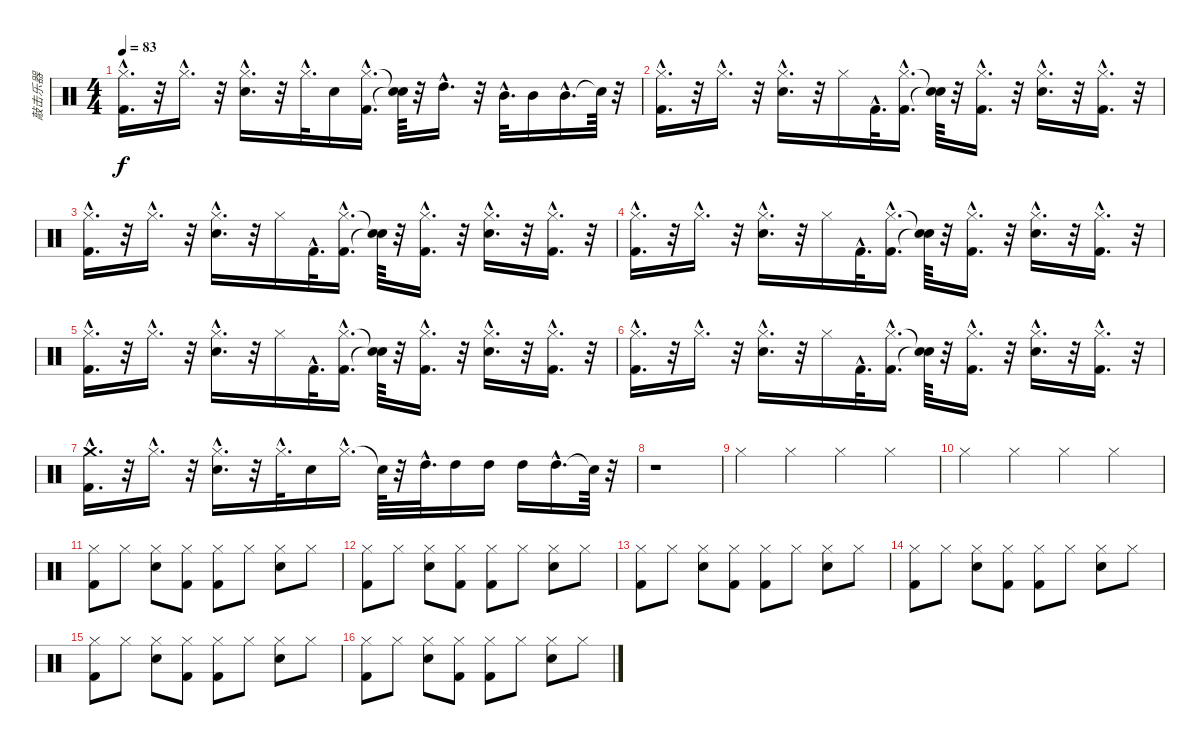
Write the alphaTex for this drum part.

\track ("敲击乐器" "敲击乐器") {instrument percussion}
\staff {score}
\articulation defaults
\ts (4 4)
\tempo 83
\clef neutral
\ks c
("Kick (hit) 2"{hac} "Hi-Hat (closed)"{hac}).16{d dy f} r.32 "Hi-Hat (closed)"{hac}.16{d} r.32 ("Hi-Hat (closed)"{hac} "Snare (hit) 2"{hac}).16{d} r.32 "Hi-Hat (closed)"{hac}.32{d} "Snare (hit) 2".16 ("Kick (hit) 2"{hac} "Hi-Hat (closed)"{hac}).16{d} ("Snare (hit)"{t} "Snare (hit)"{t}).64 r.32 "High Tom (hit)"{hac}.16{d} r.32 "Mid Tom (hit)"{hac}.32{d} "Mid Tom (hit)".16 "Mid Tom (hit)"{hac}.16{d} "Snare (hit)"{t}.64 r.32 |
("Kick (hit) 2"{hac} "Hi-Hat (closed)"{hac}).16{d} r.32 "Hi-Hat (closed)"{hac}.16{d} r.32 ("Hi-Hat (closed)"{hac} "Snare (hit) 2"{hac}).16{d} r.32 "Hi-Hat (closed)".16 "Kick (hit) 2"{hac}.32{d} ("Hi-Hat (closed)"{hac} "Kick (hit) 2"{hac}).16{d} ("Snare (hit)"{t} "Snare (hit)"{t}).64 r.32 ("Hi-Hat (closed)"{hac} "Kick (hit) 2"{hac}).16{d} r.32 ("Snare (hit) 2"{hac} "Hi-Hat (closed)"{hac}).16{d} r.32 ("Kick (hit) 2"{hac} "Hi-Hat (closed)"{hac}).16{d} r.32 |
("Kick (hit) 2"{hac} "Hi-Hat (closed)"{hac}).16{d} r.32 "Hi-Hat (closed)"{hac}.16{d} r.32 ("Hi-Hat (closed)"{hac} "Snare (hit) 2"{hac}).16{d} r.32 "Hi-Hat (closed)".16 "Kick (hit) 2"{hac}.32{d} ("Hi-Hat (closed)"{hac} "Kick (hit) 2"{hac}).16{d} ("Snare (hit)"{t} "Snare (hit)"{t}).64 r.32 ("Hi-Hat (closed)"{hac} "Kick (hit) 2"{hac}).16{d} r.32 ("Snare (hit) 2"{hac} "Hi-Hat (closed)"{hac}).16{d} r.32 ("Kick (hit) 2"{hac} "Hi-Hat (closed)"{hac}).16{d} r.32 |
("Kick (hit) 2"{hac} "Hi-Hat (closed)"{hac}).16{d} r.32 "Hi-Hat (closed)"{hac}.16{d} r.32 ("Hi-Hat (closed)"{hac} "Snare (hit) 2"{hac}).16{d} r.32 "Hi-Hat (closed)".16 "Kick (hit) 2"{hac}.32{d} ("Hi-Hat (closed)"{hac} "Kick (hit) 2"{hac}).16{d} ("Snare (hit)"{t} "Snare (hit)"{t}).64 r.32 ("Hi-Hat (closed)"{hac} "Kick (hit) 2"{hac}).16{d} r.32 ("Snare (hit) 2"{hac} "Hi-Hat (closed)"{hac}).16{d} r.32 ("Kick (hit) 2"{hac} "Hi-Hat (closed)"{hac}).16{d} r.32 |
("Kick (hit) 2"{hac} "Hi-Hat (closed)"{hac}).16{d} r.32 "Hi-Hat (closed)"{hac}.16{d} r.32 ("Snare (hit) 2"{hac} "Hi-Hat (closed)"{hac}).16{d} r.32 "Hi-Hat (closed)".16 "Kick (hit) 2"{hac}.32{d} ("Hi-Hat (closed)"{hac} "Kick (hit) 2"{hac}).16{d} ("Snare (hit)"{t} "Snare (hit)"{t}).64 r.32 ("Hi-Hat (closed)"{hac} "Kick (hit) 2"{hac}).16{d} r.32 ("Snare (hit) 2"{hac} "Hi-Hat (closed)"{hac}).16{d} r.32 ("Hi-Hat (closed)"{hac} "Kick (hit) 2"{hac}).16{d} r.32 |
("Kick (hit) 2"{hac} "Hi-Hat (closed)"{hac}).16{d} r.32 "Hi-Hat (closed)"{hac}.16{d} r.32 ("Snare (hit) 2"{hac} "Hi-Hat (closed)"{hac}).16{d} r.32 "Hi-Hat (closed)".16 "Kick (hit) 2"{hac}.32{d} ("Hi-Hat (closed)"{hac} "Kick (hit) 2"{hac}).16{d} ("Snare (hit)"{t} "Snare (hit)"{t}).64 r.32 ("Hi-Hat (closed)"{hac} "Kick (hit) 2"{hac}).16{d} r.32 ("Snare (hit) 2"{hac} "Hi-Hat (closed)"{hac}).16{d} r.32 ("Kick (hit) 2"{hac} "Hi-Hat (closed)"{hac}).16{d} r.32 |
("Crash medium (hit)"{hac} "Kick (hit) 2"{hac}).16{d} r.32 "Hi-Hat (closed)"{hac}.16{d} r.32 ("Snare (hit) 2"{hac} "Hi-Hat (closed)"{hac}).16{d} r.32 "Hi-Hat (closed)"{hac}.32{d} "Snare (hit) 2".16 "Hi-Hat (closed)"{hac}.16{d} "Snare (hit)"{t}.64 r.32 "High Tom (hit)"{hac}.32{d} "High Tom (hit)".16 "High Tom (hit)".16 "High Tom (hit)".16 "High Tom (hit)"{hac}.16{d} "Snare (hit)"{t}.64 r.32 |
r.1 |
"Hi-Hat (closed)".4 "Hi-Hat (closed)".4 "Hi-Hat (closed)".4 "Hi-Hat (closed)".4 |
"Hi-Hat (closed)".4 "Hi-Hat (closed)".4 "Hi-Hat (closed)".4 "Hi-Hat (closed)".4 |
("Kick (hit) 2" "Hi-Hat (closed)").8 "Hi-Hat (closed)".8 ("Hi-Hat (closed)" "Snare (hit) 2").8 ("Hi-Hat (closed)" "Kick (hit) 2").8 ("Kick (hit) 2" "Hi-Hat (closed)").8 "Hi-Hat (closed)".8 ("Hi-Hat (closed)" "Snare (hit) 2").8 "Hi-Hat (closed)".8 |
("Kick (hit) 2" "Hi-Hat (closed)").8 "Hi-Hat (closed)".8 ("Hi-Hat (closed)" "Snare (hit) 2").8 ("Hi-Hat (closed)" "Kick (hit) 2").8 ("Kick (hit) 2" "Hi-Hat (closed)").8 "Hi-Hat (closed)".8 ("Hi-Hat (closed)" "Snare (hit) 2").8 "Hi-Hat (closed)".8 |
("Kick (hit) 2" "Hi-Hat (closed)").8 "Hi-Hat (closed)".8 ("Hi-Hat (closed)" "Snare (hit) 2").8 ("Hi-Hat (closed)" "Kick (hit) 2").8 ("Kick (hit) 2" "Hi-Hat (closed)").8 "Hi-Hat (closed)".8 ("Hi-Hat (closed)" "Snare (hit) 2").8 "Hi-Hat (closed)".8 |
("Kick (hit) 2" "Hi-Hat (closed)").8 "Hi-Hat (closed)".8 ("Hi-Hat (closed)" "Snare (hit) 2").8 ("Hi-Hat (closed)" "Kick (hit) 2").8 ("Kick (hit) 2" "Hi-Hat (closed)").8 "Hi-Hat (closed)".8 ("Hi-Hat (closed)" "Snare (hit) 2").8 "Hi-Hat (closed)".8 |
("Kick (hit) 2" "Hi-Hat (closed)").8 "Hi-Hat (closed)".8 ("Hi-Hat (closed)" "Snare (hit) 2").8 ("Hi-Hat (closed)" "Kick (hit) 2").8 ("Kick (hit) 2" "Hi-Hat (closed)").8 "Hi-Hat (closed)".8 ("Hi-Hat (closed)" "Snare (hit) 2").8 "Hi-Hat (closed)".8 |
("Kick (hit) 2" "Hi-Hat (closed)").8 "Hi-Hat (closed)".8 ("Hi-Hat (closed)" "Snare (hit) 2").8 ("Hi-Hat (closed)" "Kick (hit) 2").8 ("Kick (hit) 2" "Hi-Hat (closed)").8 "Hi-Hat (closed)".8 ("Hi-Hat (closed)" "Snare (hit) 2").8 "Hi-Hat (closed)".8
